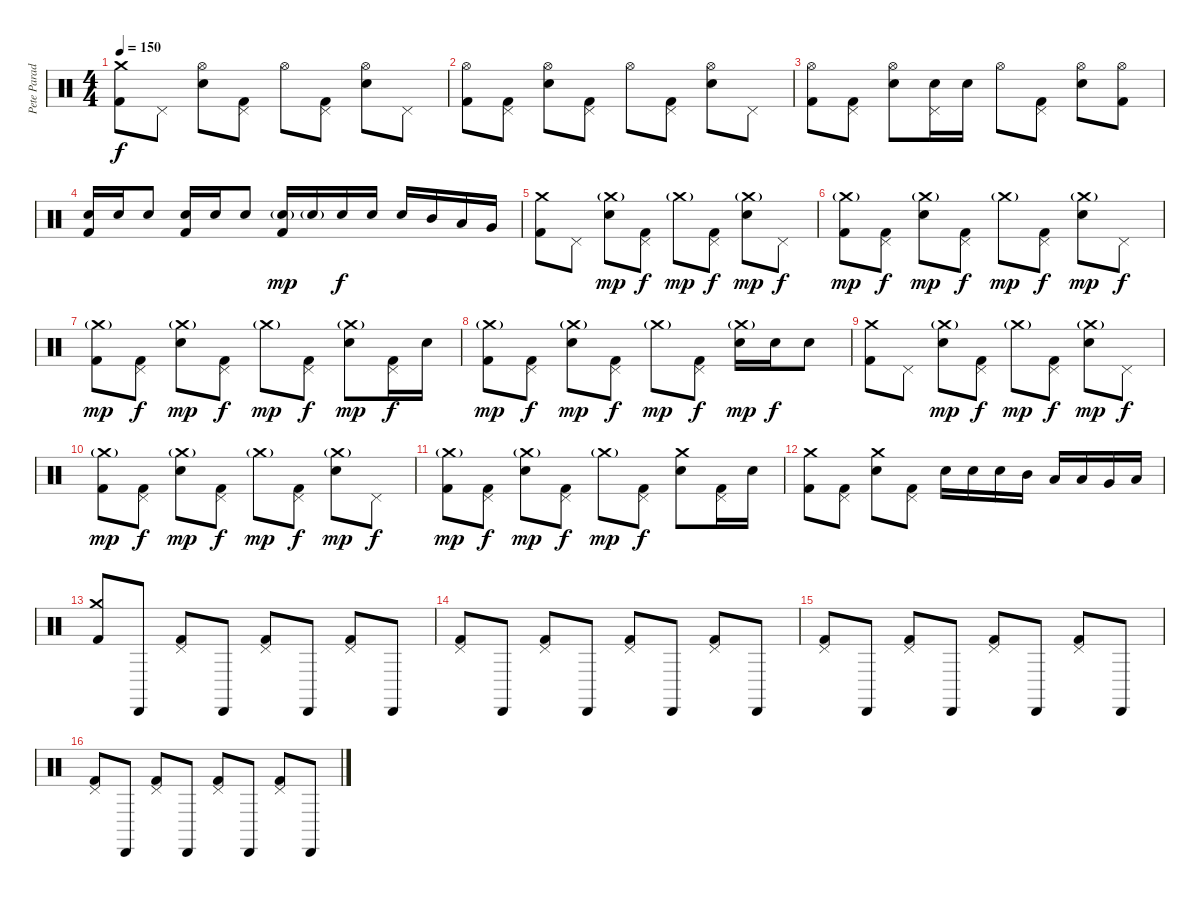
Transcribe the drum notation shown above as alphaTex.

\track ("Pete Parada - Drums" "Pete Parad") {instrument percussion}
\staff {score}
\articulation defaults
\ts (4 4)
\tempo 150
\clef neutral
\ks c
("Crash medium (hit)" "Kick (hit) 2").8{dy f} "Pedal Hi-Hat (hit)".8 ("Hi-Hat (open)" "Electric Snare (hit)").8 ("Pedal Hi-Hat (hit)" "Kick (hit) 2").8 "Hi-Hat (open)".8 ("Pedal Hi-Hat (hit)" "Kick (hit) 2").8 ("Hi-Hat (open)" "Electric Snare (hit)").8 "Pedal Hi-Hat (hit)".8 |
("Hi-Hat (open)" "Kick (hit) 2").8 ("Pedal Hi-Hat (hit)" "Kick (hit) 2").8 ("Hi-Hat (open)" "Electric Snare (hit)").8 ("Pedal Hi-Hat (hit)" "Kick (hit) 2").8 "Hi-Hat (open)".8 ("Pedal Hi-Hat (hit)" "Kick (hit) 2").8 ("Hi-Hat (open)" "Electric Snare (hit)").8 "Pedal Hi-Hat (hit)".8 |
("Hi-Hat (open)" "Kick (hit) 2").8 ("Pedal Hi-Hat (hit)" "Kick (hit) 2").8 ("Hi-Hat (open)" "Electric Snare (hit)").8 ("Pedal Hi-Hat (hit)" "Electric Snare (hit)").16 "Electric Snare (hit)".16 "Hi-Hat (open)".8 ("Pedal Hi-Hat (hit)" "Kick (hit) 2").8 ("Hi-Hat (open)" "Electric Snare (hit)").8 ("Hi-Hat (open)" "Kick (hit) 2").8 |
("Electric Snare (hit)" "Kick (hit) 2").16 "Electric Snare (hit)".16 "Electric Snare (hit)".8 ("Electric Snare (hit)" "Kick (hit) 2").16 "Electric Snare (hit)".16 "Electric Snare (hit)".8 ("Electric Snare (hit)"{g} "Kick (hit) 2").16{dy mp} "Electric Snare (hit)"{g}.16 "Electric Snare (hit)".16{dy f} "Electric Snare (hit)".16 "Electric Snare (hit)".16 "Mid Tom (hit)".16 "Low Tom (hit)".16 "Very Low Tom (hit)".16 |
("Crash medium (hit)" "Kick (hit) 2").8 "Pedal Hi-Hat (hit)".8 ("Crash medium (hit)"{g} "Electric Snare (hit)").8{dy mp} ("Pedal Hi-Hat (hit)" "Kick (hit) 2").8{dy f} "Crash medium (hit)"{g}.8{dy mp} ("Pedal Hi-Hat (hit)" "Kick (hit) 2").8{dy f} ("Crash medium (hit)"{g} "Electric Snare (hit)").8{dy mp} "Pedal Hi-Hat (hit)".8{dy f} |
("Crash medium (hit)"{g} "Kick (hit) 2").8{dy mp} ("Pedal Hi-Hat (hit)" "Kick (hit) 2").8{dy f} ("Crash medium (hit)"{g} "Electric Snare (hit)").8{dy mp} ("Pedal Hi-Hat (hit)" "Kick (hit) 2").8{dy f} "Crash medium (hit)"{g}.8{dy mp} ("Pedal Hi-Hat (hit)" "Kick (hit) 2").8{dy f} ("Crash medium (hit)"{g} "Electric Snare (hit)").8{dy mp} "Pedal Hi-Hat (hit)".8{dy f} |
("Crash medium (hit)"{g} "Kick (hit) 2").8{dy mp} ("Pedal Hi-Hat (hit)" "Kick (hit) 2").8{dy f} ("Crash medium (hit)"{g} "Electric Snare (hit)").8{dy mp} ("Pedal Hi-Hat (hit)" "Kick (hit) 2").8{dy f} "Crash medium (hit)"{g}.8{dy mp} ("Pedal Hi-Hat (hit)" "Kick (hit) 2").8{dy f} ("Crash medium (hit)"{g} "Electric Snare (hit)").8{dy mp} ("Pedal Hi-Hat (hit)" "Kick (hit) 2").16{dy f} "Electric Snare (hit)".16 |
("Crash medium (hit)"{g} "Kick (hit) 2").8{dy mp} ("Pedal Hi-Hat (hit)" "Kick (hit) 2").8{dy f} ("Crash medium (hit)"{g} "Electric Snare (hit)").8{dy mp} ("Pedal Hi-Hat (hit)" "Kick (hit) 2").8{dy f} "Crash medium (hit)"{g}.8{dy mp} ("Pedal Hi-Hat (hit)" "Kick (hit) 2").8{dy f} ("Crash medium (hit)"{g} "Electric Snare (hit)").16{dy mp} "Electric Snare (hit)".16{dy f} "Electric Snare (hit)".8 |
("Crash medium (hit)" "Kick (hit) 2").8 "Pedal Hi-Hat (hit)".8 ("Crash medium (hit)"{g} "Electric Snare (hit)").8{dy mp} ("Pedal Hi-Hat (hit)" "Kick (hit) 2").8{dy f} "Crash medium (hit)"{g}.8{dy mp} ("Pedal Hi-Hat (hit)" "Kick (hit) 2").8{dy f} ("Crash medium (hit)"{g} "Electric Snare (hit)").8{dy mp} "Pedal Hi-Hat (hit)".8{dy f} |
("Crash medium (hit)"{g} "Kick (hit) 2").8{dy mp} ("Pedal Hi-Hat (hit)" "Kick (hit) 2").8{dy f} ("Crash medium (hit)"{g} "Electric Snare (hit)").8{dy mp} ("Pedal Hi-Hat (hit)" "Kick (hit) 2").8{dy f} "Crash medium (hit)"{g}.8{dy mp} ("Pedal Hi-Hat (hit)" "Kick (hit) 2").8{dy f} ("Crash medium (hit)"{g} "Electric Snare (hit)").8{dy mp} "Pedal Hi-Hat (hit)".8{dy f} |
("Crash medium (hit)"{g} "Kick (hit) 2").8{dy mp} ("Pedal Hi-Hat (hit)" "Kick (hit) 2").8{dy f} ("Crash medium (hit)"{g} "Electric Snare (hit)").8{dy mp} ("Pedal Hi-Hat (hit)" "Kick (hit) 2").8{dy f} "Crash medium (hit)"{g}.8{dy mp} ("Pedal Hi-Hat (hit)" "Kick (hit) 2").8{dy f} ("Crash medium (hit)" "Electric Snare (hit)").8 ("Pedal Hi-Hat (hit)" "Kick (hit) 2").16 "Electric Snare (hit)".16 |
("Crash medium (hit)" "Kick (hit) 2").8 ("Pedal Hi-Hat (hit)" "Kick (hit) 2").8 ("Crash medium (hit)" "Electric Snare (hit)").8 ("Pedal Hi-Hat (hit)" "Kick (hit) 2").8 "Electric Snare (hit)".16 "Electric Snare (hit)".16 "Electric Snare (hit)".16 "Mid Tom (hit)".16 "Low Tom (hit)".16 "Low Tom (hit)".16 "Very Low Tom (hit)".16 "Low Floor Tom (hit)".16 |
("Crash medium (hit)" "Kick (hit) 2").8 "Cabasa (hit)".8 ("Pedal Hi-Hat (hit)" "Kick (hit) 2").8 "Cabasa (hit)".8 ("Pedal Hi-Hat (hit)" "Kick (hit) 2").8 "Cabasa (hit)".8 ("Pedal Hi-Hat (hit)" "Kick (hit) 2").8 "Cabasa (hit)".8 |
("Pedal Hi-Hat (hit)" "Kick (hit) 2").8 "Cabasa (hit)".8 ("Pedal Hi-Hat (hit)" "Kick (hit) 2").8 "Cabasa (hit)".8 ("Pedal Hi-Hat (hit)" "Kick (hit) 2").8 "Cabasa (hit)".8 ("Pedal Hi-Hat (hit)" "Kick (hit) 2").8 "Cabasa (hit)".8 |
("Pedal Hi-Hat (hit)" "Kick (hit) 2").8 "Cabasa (hit)".8 ("Pedal Hi-Hat (hit)" "Kick (hit) 2").8 "Cabasa (hit)".8 ("Pedal Hi-Hat (hit)" "Kick (hit) 2").8 "Cabasa (hit)".8 ("Pedal Hi-Hat (hit)" "Kick (hit) 2").8 "Cabasa (hit)".8 |
("Pedal Hi-Hat (hit)" "Kick (hit) 2").8 "Cabasa (hit)".8 ("Pedal Hi-Hat (hit)" "Kick (hit) 2").8 "Cabasa (hit)".8 ("Pedal Hi-Hat (hit)" "Kick (hit) 2").8 "Cabasa (hit)".8 ("Pedal Hi-Hat (hit)" "Kick (hit) 2").8 "Cabasa (hit)".8
